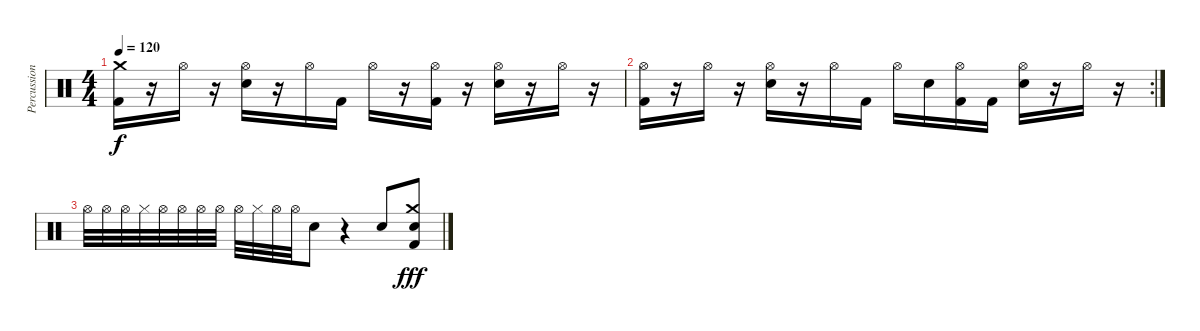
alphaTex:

\track ("Percussion" "Percussion") {instrument percussion}
\staff {score}
\articulation defaults
\ts (4 4)
\tempo 120
\clef neutral
\ks c
("Kick (hit) 2" "Crash medium (hit)").16{dy f} r.16 "Hi-Hat (open)".16 r.16 ("Electric Snare (hit)" "Hi-Hat (open)").16 r.16 "Hi-Hat (open)".16 "Kick (hit) 2".16 "Hi-Hat (open)".16 r.16 ("Hi-Hat (open)" "Kick (hit) 2").16 r.16 ("Hi-Hat (open)" "Electric Snare (hit)").16 r.16 "Hi-Hat (open)".16 r.16 |
\rc 2
("Hi-Hat (open)" "Kick (hit) 2").16 r.16 "Hi-Hat (open)".16 r.16 ("Hi-Hat (open)" "Electric Snare (hit)").16 r.16 "Hi-Hat (open)".16 "Kick (hit) 2".16 "Hi-Hat (open)".16 "Electric Snare (hit)".16 ("Hi-Hat (open)" "Kick (hit) 2").16 "Kick (hit) 2".16 ("Hi-Hat (open)" "Electric Snare (hit)").16 r.16 "Hi-Hat (open)".16 r.16 |
"Hi-Hat (open)".32 "Hi-Hat (open)".32 "Hi-Hat (open)".32 "Hi-Hat (closed)".32 "Hi-Hat (open)".32 "Hi-Hat (open)".32 "Hi-Hat (open)".32 "Hi-Hat (open)".32 "Hi-Hat (open)".32 "Hi-Hat (closed)".32 "Hi-Hat (open)".32 "Hi-Hat (open)".32 "Electric Snare (hit)".8 r.4 "Electric Snare (hit)".8 ("Crash medium (hit)" "Electric Snare (hit)" "Kick (hit) 2").8{dy fff}
